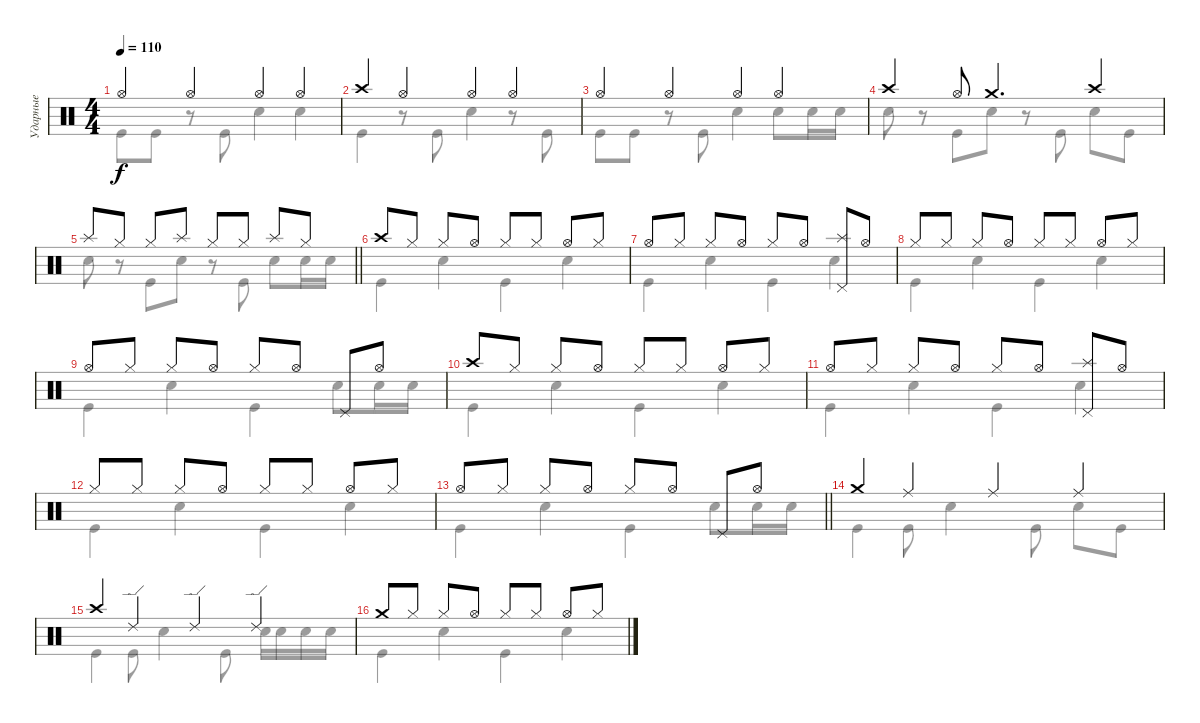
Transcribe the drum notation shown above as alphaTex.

\track ("Ударные" "Ударные") {instrument percussion}
\staff {score}
\articulation defaults
\voice
\ts (4 4)
\tempo 110
\clef neutral
\ks c "Hi-Hat (open)".4{dy f} "Hi-Hat (open)".4 "Hi-Hat (open)".4 "Hi-Hat (open)".4
|
"Crash high (hit)".4 "Hi-Hat (open)".4 "Hi-Hat (open)".4 "Hi-Hat (open)".4 |
"Hi-Hat (open)".4 "Hi-Hat (open)".4 "Hi-Hat (open)".4 "Hi-Hat (open)".4 |
"Crash high (hit)".4 "Hi-Hat (open)".8 "Crash medium (hit)".4{d} "Crash high (hit)".4 |
\barLineRight lightlight "Splash (hit)".8 "Hi-Hat (closed)".8 "Hi-Hat (closed)".8 "Splash (hit)".8 "Hi-Hat (closed)".8 "Hi-Hat (closed)".8 "Splash (hit)".8 "Hi-Hat (closed)".8
|
"Crash high (hit)".8 "Hi-Hat (closed)".8 "Hi-Hat (closed)".8 "Hi-Hat (open)".8 "Hi-Hat (closed)".8 "Hi-Hat (closed)".8 "Hi-Hat (open)".8 "Hi-Hat (closed)".8 |
"Hi-Hat (open)".8 "Hi-Hat (closed)".8 "Hi-Hat (closed)".8 "Hi-Hat (open)".8 "Hi-Hat (closed)".8 "Hi-Hat (open)".8 ("Pedal Hi-Hat (hit)" "Splash (hit)").8 "Hi-Hat (open)".8 |
"Hi-Hat (closed)".8 "Hi-Hat (closed)".8 "Hi-Hat (closed)".8 "Hi-Hat (open)".8 "Hi-Hat (closed)".8 "Hi-Hat (closed)".8 "Hi-Hat (open)".8 "Hi-Hat (closed)".8 |
"Hi-Hat (open)".8 "Hi-Hat (closed)".8 "Hi-Hat (closed)".8 "Hi-Hat (open)".8 "Hi-Hat (closed)".8 "Hi-Hat (open)".8 "Pedal Hi-Hat (hit)".8 "Hi-Hat (open)".8 |
"Crash high (hit)".8 "Hi-Hat (closed)".8 "Hi-Hat (closed)".8 "Hi-Hat (open)".8 "Hi-Hat (closed)".8 "Hi-Hat (closed)".8 "Hi-Hat (open)".8 "Hi-Hat (closed)".8 |
"Hi-Hat (open)".8 "Hi-Hat (closed)".8 "Hi-Hat (closed)".8 "Hi-Hat (open)".8 "Hi-Hat (closed)".8 "Hi-Hat (open)".8 ("Pedal Hi-Hat (hit)" "Splash (hit)").8 "Hi-Hat (open)".8 |
"Hi-Hat (closed)".8 "Hi-Hat (closed)".8 "Hi-Hat (closed)".8 "Hi-Hat (open)".8 "Hi-Hat (closed)".8 "Hi-Hat (closed)".8 "Hi-Hat (open)".8 "Hi-Hat (closed)".8 |
\barLineRight lightlight "Hi-Hat (open)".8 "Hi-Hat (closed)".8 "Hi-Hat (closed)".8 "Hi-Hat (open)".8 "Hi-Hat (closed)".8 "Hi-Hat (open)".8 "Pedal Hi-Hat (hit)".8 "Hi-Hat (open)".8
|
"Crash medium (hit)".4 "Ride (middle)".4 "Ride (middle)".4 "Ride (middle)".4 |
"Crash high (hit)".4 "Ride (edge) 2".4 "Ride (edge) 2".4 "Ride (edge) 2".4 |
"Crash medium (hit)".8 "Hi-Hat (closed)".8 "Hi-Hat (closed)".8 "Hi-Hat (open)".8 "Hi-Hat (closed)".8 "Hi-Hat (closed)".8 "Hi-Hat (open)".8 "Hi-Hat (closed)".8
\voice
\clef neutral
\ottava regular
\simile none
\ks c "Kick (hit)".8{dy f} "Kick (hit)".8
r.8 "Kick (hit)".8 "Snare (hit) 2".4 "Snare (hit) 2".4 |
"Kick (hit)".4 r.8 "Kick (hit)".8 "Snare (hit) 2".4 r.8 "Kick (hit)".8 |
"Kick (hit)".8 "Kick (hit)".8 r.8 "Kick (hit)".8 "Snare (hit) 2".4 "Snare (hit) 2".8 "Snare (hit) 2".16 "Snare (hit) 2".16 |
"Snare (hit) 2".8 r.8 "Kick (hit)".8 "Snare (hit) 2".8 r.8 "Kick (hit)".8 "Snare (hit) 2".8 "Kick (hit)".8 |
\barLineRight lightlight "Snare (hit) 2".8
r.8 "Kick (hit)".8 "Snare (hit) 2".8 r.8 "Kick (hit)".8 "Snare (hit) 2".8 "Snare (hit) 2".16 "Snare (hit) 2".16 |
"Kick (hit)".4 "Snare (hit) 2".4 "Kick (hit)".4 "Snare (hit) 2".4 |
"Kick (hit)".4 "Snare (hit) 2".4 "Kick (hit)".4 "Snare (hit) 2".4 |
"Kick (hit)".4 "Snare (hit) 2".4 "Kick (hit)".4 "Snare (hit) 2".4 |
"Kick (hit)".4 "Snare (hit) 2".4 "Kick (hit)".4 "Snare (hit) 2".8 "Snare (hit) 2".16 "Snare (hit) 2".16 |
"Kick (hit)".4 "Snare (hit) 2".4 "Kick (hit)".4 "Snare (hit) 2".4 |
"Kick (hit)".4 "Snare (hit) 2".4 "Kick (hit)".4 "Snare (hit) 2".4 |
"Kick (hit)".4 "Snare (hit) 2".4 "Kick (hit)".4 "Snare (hit) 2".4 |
\barLineRight lightlight "Kick (hit)".4 "Snare (hit) 2".4 "Kick (hit)".4 "Snare (hit) 2".8 "Snare (hit) 2".16 "Snare (hit) 2".16
|
"Kick (hit)".4 "Kick (hit)".8 "Snare (hit) 2".4 "Kick (hit)".8 "Snare (hit) 2".8 "Kick (hit)".8 |
"Kick (hit)".4 "Kick (hit)".8 "Snare (hit) 2".4 "Kick (hit)".8 "Snare (hit) 2".16 "Snare (hit) 2".16 "Snare (hit) 2".16 "Snare (hit) 2".16 |
"Kick (hit)".4 "Snare (hit) 2".4 "Kick (hit)".4 "Snare (hit) 2".4
